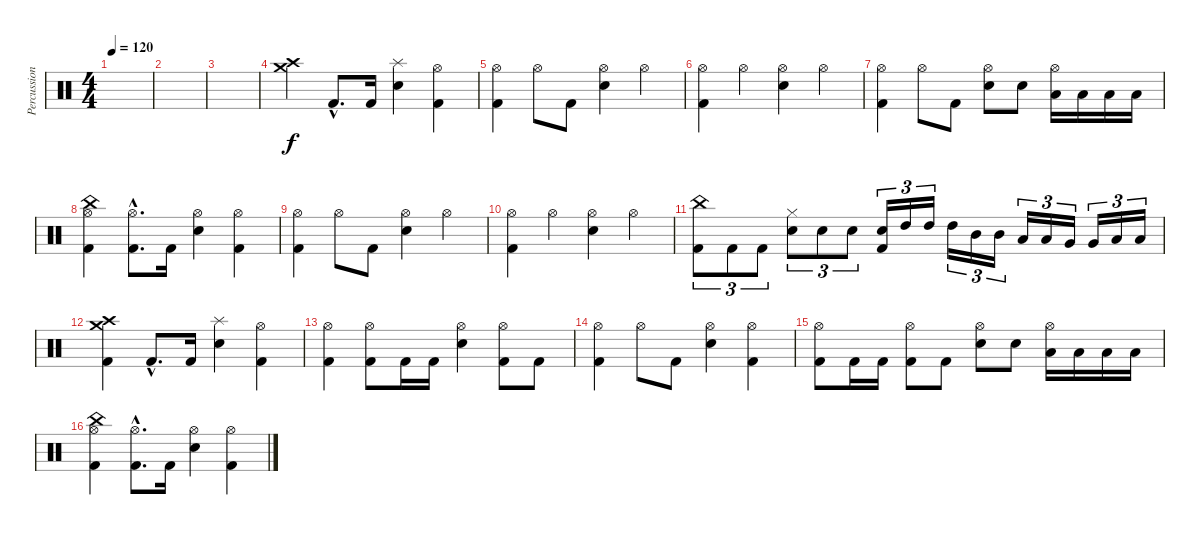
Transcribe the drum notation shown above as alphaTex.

\track ("Percussion" "Percussion") {instrument percussion}
\staff {score}
\articulation defaults
\ts (4 4)
\tempo 120
\clef neutral
\ks c
|
|
|
("Crash medium (hit)" "Crash high (hit)").4 "Kick (hit) 2"{hac}.8{d} "Kick (hit) 2".16 ("Splash (hit)" "Electric Snare (hit)").4 ("Hi-Hat (open)" "Kick (hit) 2").4 |
("Hi-Hat (open)" "Kick (hit) 2").4 "Hi-Hat (open)".8 "Kick (hit) 2".8 ("Hi-Hat (open)" "Electric Snare (hit)").4 "Hi-Hat (open)".4 |
("Hi-Hat (open)" "Kick (hit) 2").4 "Hi-Hat (open)".4 ("Hi-Hat (open)" "Electric Snare (hit)").4 "Hi-Hat (open)".4 |
("Hi-Hat (open)" "Kick (hit) 2").4 "Hi-Hat (open)".8 "Kick (hit) 2".8 ("Hi-Hat (open)" "Electric Snare (hit)").8 "Electric Snare (hit)".8 ("Hi-Hat (open)" "Low Tom (hit)").16 "Low Tom (hit)".16 "Low Tom (hit)".16 "Low Tom (hit)".16 |
("Hi-Hat (open)" "China (hit)" "Kick (hit) 2").4 ("Hi-Hat (open)"{hac} "Kick (hit) 2"{hac}).8{d} "Kick (hit) 2".16 ("Hi-Hat (open)" "Electric Snare (hit)").4 ("Hi-Hat (open)" "Kick (hit) 2").4 |
("Hi-Hat (open)" "Kick (hit) 2").4 "Hi-Hat (open)".8 "Kick (hit) 2".8 ("Hi-Hat (open)" "Electric Snare (hit)").4 "Hi-Hat (open)".4 |
("Hi-Hat (open)" "Kick (hit) 2").4 "Hi-Hat (open)".4 ("Hi-Hat (open)" "Electric Snare (hit)").4 "Hi-Hat (open)".4 |
("China (hit)" "Kick (hit) 2").8{tu (3 2)} "Kick (hit) 2".8{tu (3 2)} "Kick (hit) 2".8{tu (3 2)} ("Hi-Hat (closed)" "Electric Snare (hit)").8{tu (3 2)} "Electric Snare (hit)".8{tu (3 2)} "Electric Snare (hit)".8{tu (3 2)} ("Electric Snare (hit)" "Kick (hit) 2").16{tu (3 2)} "High Tom (hit)".16{tu (3 2)} "High Tom (hit)".16{tu (3 2)} "High Tom (hit)".16{tu (3 2)} "Mid Tom (hit)".16{tu (3 2)} "Mid Tom (hit)".16{tu (3 2)} "Low Tom (hit)".16{tu (3 2)} "Low Tom (hit)".16{tu (3 2)} "Very Low Tom (hit)".16{tu (3 2)} "Very Low Tom (hit)".16{tu (3 2)} "Low Floor Tom (hit)".16{tu (3 2)} "Low Floor Tom (hit)".16{tu (3 2)} |
("Crash medium (hit)" "Crash high (hit)" "Kick (hit) 2").4 "Kick (hit) 2"{hac}.8{d} "Kick (hit) 2".16 ("Splash (hit)" "Electric Snare (hit)").4 ("Hi-Hat (open)" "Kick (hit) 2").4 |
("Hi-Hat (open)" "Kick (hit) 2").4 ("Hi-Hat (open)" "Kick (hit) 2").8 "Kick (hit) 2".16 "Kick (hit) 2".16 ("Hi-Hat (open)" "Electric Snare (hit)").4 ("Hi-Hat (open)" "Kick (hit) 2").8 "Kick (hit) 2".8 |
("Hi-Hat (open)" "Kick (hit) 2").4 "Hi-Hat (open)".8 "Kick (hit) 2".8 ("Hi-Hat (open)" "Electric Snare (hit)").4 ("Hi-Hat (open)" "Kick (hit) 2").4 |
("Hi-Hat (open)" "Kick (hit) 2").8 "Kick (hit) 2".16 "Kick (hit) 2".16 ("Hi-Hat (open)" "Kick (hit) 2").8 "Kick (hit) 2".8 ("Hi-Hat (open)" "Electric Snare (hit)").8 "Electric Snare (hit)".8 ("Hi-Hat (open)" "Low Tom (hit)").16 "Low Tom (hit)".16 "Low Tom (hit)".16 "Low Tom (hit)".16 |
("Hi-Hat (open)" "China (hit)" "Kick (hit) 2").4 ("Hi-Hat (open)"{hac} "Kick (hit) 2"{hac}).8{d} "Kick (hit) 2".16 ("Hi-Hat (open)" "Electric Snare (hit)").4 ("Hi-Hat (open)" "Kick (hit) 2").4
